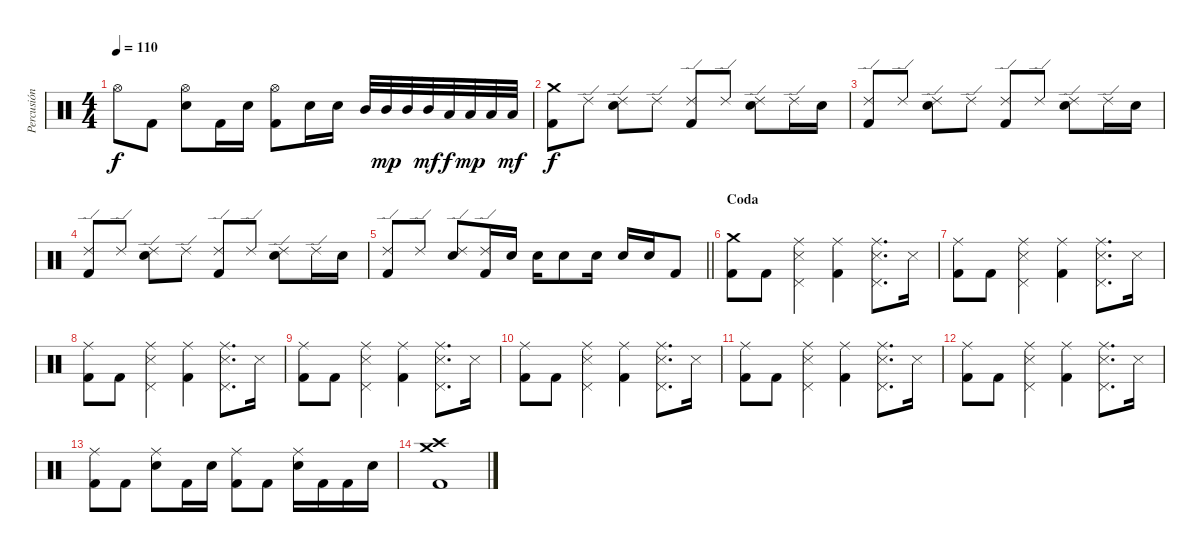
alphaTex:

\track ("Percusión" "Percusión") {instrument percussion}
\staff {score}
\articulation defaults
\ts (4 4)
\tempo 110
\clef neutral
\ks c "Hi-Hat (open)".8{dy f} "Kick (hit) 2".8
("Hi-Hat (open)" "Electric Snare (hit)").8 "Kick (hit) 2".16 "Electric Snare (hit)".16 ("Hi-Hat (open)" "Kick (hit) 2").8 "Electric Snare (hit)".16 "Electric Snare (hit)".16 "Mid Tom (hit)".32 "Mid Tom (hit)".32{dy mp} "Mid Tom (hit)".32 "Mid Tom (hit)".32{dy mf} "Low Tom (hit)".32{dy f} "Low Tom (hit)".32{dy mp} "Low Tom (hit)".32 "Low Tom (hit)".32{dy mf} |
("Crash medium (hit)" "Kick (hit) 2").8{dy f} "Ride (edge) 2".8 ("Ride (edge) 2" "Electric Snare (hit)").8 "Ride (edge) 2".8 ("Ride (edge) 2" "Kick (hit) 2").8 "Ride (edge) 2".8 ("Ride (edge) 2" "Electric Snare (hit)").8 "Ride (edge) 2".16 "Electric Snare (hit)".16 |
("Ride (edge) 2" "Kick (hit) 2").8 "Ride (edge) 2".8 ("Ride (edge) 2" "Electric Snare (hit)").8 "Ride (edge) 2".8 ("Ride (edge) 2" "Kick (hit) 2").8 "Ride (edge) 2".8 ("Ride (edge) 2" "Electric Snare (hit)").8 "Ride (edge) 2".16 "Electric Snare (hit)".16 |
("Ride (edge) 2" "Kick (hit) 2").8 "Ride (edge) 2".8 ("Ride (edge) 2" "Electric Snare (hit)").8 "Ride (edge) 2".8 ("Ride (edge) 2" "Kick (hit) 2").8 "Ride (edge) 2".8 ("Ride (edge) 2" "Electric Snare (hit)").8 "Ride (edge) 2".16 "Electric Snare (hit)".16 |
\barLineRight lightlight
("Ride (edge) 2" "Kick (hit) 2").8 "Ride (edge) 2".8 ("Ride (edge) 2" "Electric Snare (hit)").8 ("Ride (edge) 2" "Kick (hit) 2").16 "Electric Snare (hit)".16 "Electric Snare (hit)".16 "Electric Snare (hit)".8 "Electric Snare (hit)".16 "Electric Snare (hit)".16 "Electric Snare (hit)".16 "Kick (hit) 2".8 |
\section ("" "Coda")
("Crash medium (hit)" "Kick (hit) 2").8 "Kick (hit) 2".8 ("Ride (middle)" "Pedal Hi-Hat (hit)" "Snare (side stick) 3").4 ("Ride (middle)" "Kick (hit) 2").4 ("Ride (middle)" "Pedal Hi-Hat (hit)" "Snare (side stick) 3").8{d} "Snare (side stick) 3".16 |
("Ride (middle)" "Kick (hit) 2").8 "Kick (hit) 2".8 ("Ride (middle)" "Pedal Hi-Hat (hit)" "Snare (side stick) 3").4 ("Ride (middle)" "Kick (hit) 2").4 ("Ride (middle)" "Pedal Hi-Hat (hit)" "Snare (side stick) 3").8{d} "Snare (side stick) 3".16 |
("Ride (middle)" "Kick (hit) 2").8 "Kick (hit) 2".8 ("Ride (middle)" "Pedal Hi-Hat (hit)" "Snare (side stick) 3").4 ("Ride (middle)" "Kick (hit) 2").4 ("Ride (middle)" "Pedal Hi-Hat (hit)" "Snare (side stick) 3").8{d} "Snare (side stick) 3".16 |
("Ride (middle)" "Kick (hit) 2").8 "Kick (hit) 2".8 ("Ride (middle)" "Pedal Hi-Hat (hit)" "Snare (side stick) 3").4 ("Ride (middle)" "Kick (hit) 2").4 ("Ride (middle)" "Pedal Hi-Hat (hit)" "Snare (side stick) 3").8{d} "Snare (side stick) 3".16 |
("Ride (middle)" "Kick (hit) 2").8 "Kick (hit) 2".8 ("Ride (middle)" "Pedal Hi-Hat (hit)" "Snare (side stick) 3").4 ("Ride (middle)" "Kick (hit) 2").4 ("Ride (middle)" "Pedal Hi-Hat (hit)" "Snare (side stick) 3").8{d} "Snare (side stick) 3".16 |
("Ride (middle)" "Kick (hit) 2").8 "Kick (hit) 2".8 ("Ride (middle)" "Pedal Hi-Hat (hit)" "Snare (side stick) 3").4 ("Ride (middle)" "Kick (hit) 2").4 ("Ride (middle)" "Pedal Hi-Hat (hit)" "Snare (side stick) 3").8{d} "Snare (side stick) 3".16 |
("Ride (middle)" "Kick (hit) 2").8 "Kick (hit) 2".8 ("Ride (middle)" "Pedal Hi-Hat (hit)" "Snare (side stick) 3").4 ("Ride (middle)" "Kick (hit) 2").4 ("Ride (middle)" "Pedal Hi-Hat (hit)" "Snare (side stick) 3").8{d} "Snare (side stick) 3".16 |
("Ride (middle)" "Kick (hit) 2").8 "Kick (hit) 2".8 ("Ride (middle)" "Electric Snare (hit)").8 "Kick (hit) 2".16 "Electric Snare (hit)".16 ("Ride (middle)" "Kick (hit) 2").8 "Kick (hit) 2".8 ("Ride (middle)" "Electric Snare (hit)").16 "Kick (hit) 2".16 "Kick (hit) 2".16 "Electric Snare (hit)".16 |
("Crash high (hit)" "Crash medium (hit)" "Kick (hit) 2").1
